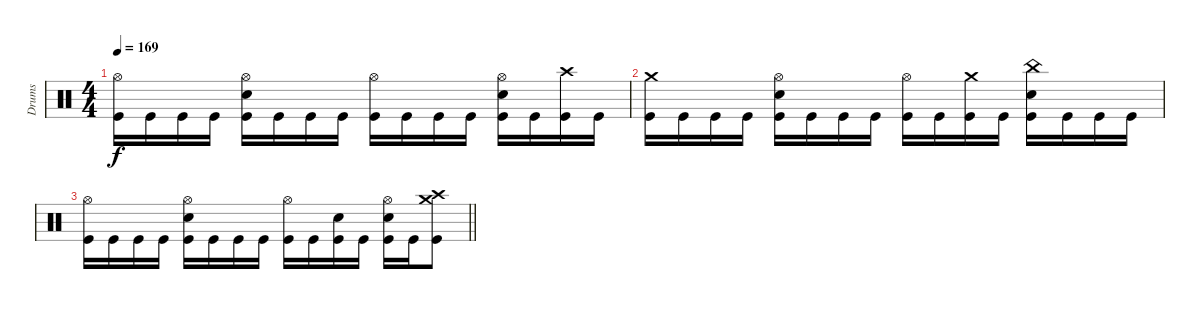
\track ("Drums" "Drums") {instrument percussion}
\staff
\articulation defaults
\ts (4 4)
\tempo 169
\clef neutral
\ks c
("Hi-Hat (open)" "Kick (hit)").16{dy f} "Kick (hit)".16 "Kick (hit)".16 "Kick (hit)".16 ("Hi-Hat (open)" "Electric Snare (hit)" "Kick (hit)").16 "Kick (hit)".16 "Kick (hit)".16 "Kick (hit)".16 ("Hi-Hat (open)" "Kick (hit)").16 "Kick (hit)".16 "Kick (hit)".16 "Kick (hit)".16 ("Hi-Hat (open)" "Electric Snare (hit)" "Kick (hit)").16 "Kick (hit)".16 ("Crash high (hit)" "Kick (hit)").16 "Kick (hit)".16 |
("Crash medium (hit)" "Kick (hit)").16 "Kick (hit)".16 "Kick (hit)".16 "Kick (hit)".16 ("Hi-Hat (open)" "Electric Snare (hit)" "Kick (hit)").16 "Kick (hit)".16 "Kick (hit)".16 "Kick (hit)".16 ("Hi-Hat (open)" "Kick (hit)").16 "Kick (hit)".16 ("Crash medium (hit)" "Kick (hit)").16 "Kick (hit)".16 ("China (hit)" "Electric Snare (hit)" "Kick (hit)").16 "Kick (hit)".16 "Kick (hit)".16 "Kick (hit)".16 |
\barLineRight lightlight
("Hi-Hat (open)" "Kick (hit)").16 "Kick (hit)".16 "Kick (hit)".16 "Kick (hit)".16 ("Hi-Hat (open)" "Electric Snare (hit)" "Kick (hit)").16 "Kick (hit)".16 "Kick (hit)".16 "Kick (hit)".16 ("Hi-Hat (open)" "Kick (hit)").16 "Kick (hit)".16 ("Electric Snare (hit)" "Kick (hit)").16 "Kick (hit)".16 ("Hi-Hat (open)" "Electric Snare (hit)" "Kick (hit)").16 "Kick (hit)".16 ("Crash high (hit)" "Crash medium (hit)" "Kick (hit)").8
